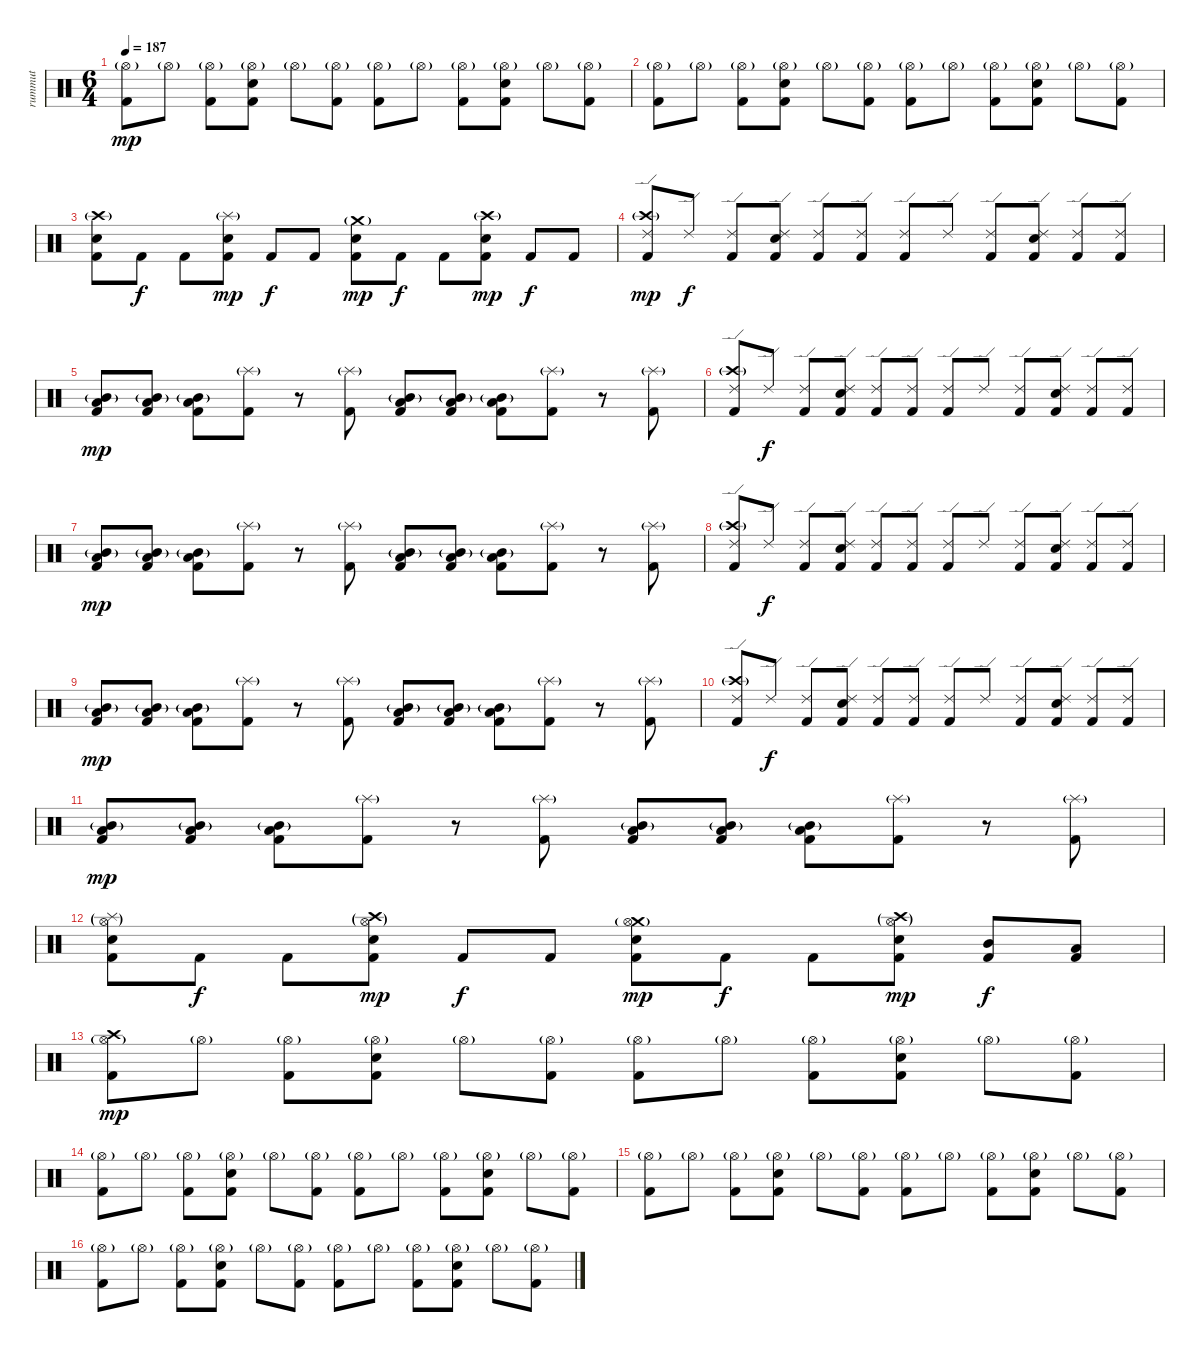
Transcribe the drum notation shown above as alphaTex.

\track ("rummut" "rummut") {instrument percussion}
\staff {score}
\articulation defaults
\ts (6 4)
\tempo 187
\clef neutral
\ks c
("Kick (hit) 2" "Hi-Hat (open)"{g}).8{dy mp} "Hi-Hat (open)"{g}.8 ("Kick (hit) 2" "Hi-Hat (open)"{g}).8 ("Kick (hit) 2" "Hi-Hat (open)"{g} "Snare (hit) 2").8 "Hi-Hat (open)"{g}.8 ("Kick (hit) 2" "Hi-Hat (open)"{g}).8 ("Kick (hit) 2" "Hi-Hat (open)"{g}).8 "Hi-Hat (open)"{g}.8 ("Kick (hit) 2" "Hi-Hat (open)"{g}).8 ("Kick (hit) 2" "Hi-Hat (open)"{g} "Snare (hit) 2").8 "Hi-Hat (open)"{g}.8 ("Kick (hit) 2" "Hi-Hat (open)"{g}).8 |
("Kick (hit) 2" "Hi-Hat (open)"{g}).8 "Hi-Hat (open)"{g}.8 ("Kick (hit) 2" "Hi-Hat (open)"{g}).8 ("Kick (hit) 2" "Hi-Hat (open)"{g} "Snare (hit) 2").8 "Hi-Hat (open)"{g}.8 ("Kick (hit) 2" "Hi-Hat (open)"{g}).8 ("Kick (hit) 2" "Hi-Hat (open)"{g}).8 "Hi-Hat (open)"{g}.8 ("Kick (hit) 2" "Hi-Hat (open)"{g}).8 ("Kick (hit) 2" "Hi-Hat (open)"{g} "Snare (hit) 2").8 "Hi-Hat (open)"{g}.8 ("Kick (hit) 2" "Hi-Hat (open)"{g}).8 |
("Kick (hit) 2" "Crash high (hit)"{g} "Snare (hit) 2").8 "Kick (hit) 2".8{dy f} "Kick (hit) 2".8 ("Kick (hit) 2" "Snare (hit) 2" "Splash (hit)"{g}).8{dy mp} "Kick (hit) 2".8{dy f} "Kick (hit) 2".8 ("Kick (hit) 2" "Snare (hit) 2" "Crash medium (hit)"{g}).8{dy mp} "Kick (hit) 2".8{dy f} "Kick (hit) 2".8 ("Kick (hit) 2" "Snare (hit) 2" "Crash high (hit)"{g}).8{dy mp} "Kick (hit) 2".8{dy f} "Kick (hit) 2".8 |
("Kick (hit) 2" "Ride (edge) 2" "Crash high (hit)"{g}).8{dy mp} "Ride (edge) 2".8{dy f} ("Kick (hit) 2" "Ride (edge) 2").8 ("Kick (hit) 2" "Ride (edge) 2" "Snare (hit) 2").8 ("Kick (hit) 2" "Ride (edge) 2").8 ("Kick (hit) 2" "Ride (edge) 2").8 ("Kick (hit) 2" "Ride (edge) 2").8 "Ride (edge) 2".8 ("Kick (hit) 2" "Ride (edge) 2").8 ("Kick (hit) 2" "Ride (edge) 2" "Snare (hit) 2").8 ("Kick (hit) 2" "Ride (edge) 2").8 ("Kick (hit) 2" "Ride (edge) 2").8 |
("Kick (hit) 2" "Low Tom (hit)" "Mid Tom (hit)"{g}).8{dy mp} ("Kick (hit) 2" "Low Tom (hit)" "Mid Tom (hit)"{g}).8 ("Kick (hit) 2" "Low Tom (hit)" "Mid Tom (hit)"{g}).8 ("Kick (hit) 2" "Splash (hit)"{g}).8 r.8 ("Kick (hit) 2" "Splash (hit)"{g}).8 ("Kick (hit) 2" "Low Tom (hit)" "Mid Tom (hit)"{g}).8 ("Kick (hit) 2" "Low Tom (hit)" "Mid Tom (hit)"{g}).8 ("Kick (hit) 2" "Low Tom (hit)" "Mid Tom (hit)"{g}).8 ("Kick (hit) 2" "Splash (hit)"{g}).8 r.8 ("Kick (hit) 2" "Splash (hit)"{g}).8 |
("Kick (hit) 2" "Ride (edge) 2" "Crash high (hit)"{g}).8 "Ride (edge) 2".8{dy f} ("Kick (hit) 2" "Ride (edge) 2").8 ("Kick (hit) 2" "Ride (edge) 2" "Snare (hit) 2").8 ("Kick (hit) 2" "Ride (edge) 2").8 ("Kick (hit) 2" "Ride (edge) 2").8 ("Kick (hit) 2" "Ride (edge) 2").8 "Ride (edge) 2".8 ("Kick (hit) 2" "Ride (edge) 2").8 ("Kick (hit) 2" "Ride (edge) 2" "Snare (hit) 2").8 ("Kick (hit) 2" "Ride (edge) 2").8 ("Kick (hit) 2" "Ride (edge) 2").8 |
("Kick (hit) 2" "Low Tom (hit)" "Mid Tom (hit)"{g}).8{dy mp} ("Kick (hit) 2" "Low Tom (hit)" "Mid Tom (hit)"{g}).8 ("Kick (hit) 2" "Low Tom (hit)" "Mid Tom (hit)"{g}).8 ("Kick (hit) 2" "Splash (hit)"{g}).8 r.8 ("Kick (hit) 2" "Splash (hit)"{g}).8 ("Kick (hit) 2" "Low Tom (hit)" "Mid Tom (hit)"{g}).8 ("Kick (hit) 2" "Low Tom (hit)" "Mid Tom (hit)"{g}).8 ("Kick (hit) 2" "Low Tom (hit)" "Mid Tom (hit)"{g}).8 ("Kick (hit) 2" "Splash (hit)"{g}).8 r.8 ("Kick (hit) 2" "Splash (hit)"{g}).8 |
("Kick (hit) 2" "Ride (edge) 2" "Crash high (hit)"{g}).8 "Ride (edge) 2".8{dy f} ("Kick (hit) 2" "Ride (edge) 2").8 ("Kick (hit) 2" "Ride (edge) 2" "Snare (hit) 2").8 ("Kick (hit) 2" "Ride (edge) 2").8 ("Kick (hit) 2" "Ride (edge) 2").8 ("Kick (hit) 2" "Ride (edge) 2").8 "Ride (edge) 2".8 ("Kick (hit) 2" "Ride (edge) 2").8 ("Kick (hit) 2" "Ride (edge) 2" "Snare (hit) 2").8 ("Kick (hit) 2" "Ride (edge) 2").8 ("Kick (hit) 2" "Ride (edge) 2").8 |
("Kick (hit) 2" "Low Tom (hit)" "Mid Tom (hit)"{g}).8{dy mp} ("Kick (hit) 2" "Low Tom (hit)" "Mid Tom (hit)"{g}).8 ("Kick (hit) 2" "Low Tom (hit)" "Mid Tom (hit)"{g}).8 ("Kick (hit) 2" "Splash (hit)"{g}).8 r.8 ("Kick (hit) 2" "Splash (hit)"{g}).8 ("Kick (hit) 2" "Low Tom (hit)" "Mid Tom (hit)"{g}).8 ("Kick (hit) 2" "Low Tom (hit)" "Mid Tom (hit)"{g}).8 ("Kick (hit) 2" "Low Tom (hit)" "Mid Tom (hit)"{g}).8 ("Kick (hit) 2" "Splash (hit)"{g}).8 r.8 ("Kick (hit) 2" "Splash (hit)"{g}).8 |
("Kick (hit) 2" "Ride (edge) 2" "Crash high (hit)"{g}).8 "Ride (edge) 2".8{dy f} ("Kick (hit) 2" "Ride (edge) 2").8 ("Kick (hit) 2" "Ride (edge) 2" "Snare (hit) 2").8 ("Kick (hit) 2" "Ride (edge) 2").8 ("Kick (hit) 2" "Ride (edge) 2").8 ("Kick (hit) 2" "Ride (edge) 2").8 "Ride (edge) 2".8 ("Kick (hit) 2" "Ride (edge) 2").8 ("Kick (hit) 2" "Ride (edge) 2" "Snare (hit) 2").8 ("Kick (hit) 2" "Ride (edge) 2").8 ("Kick (hit) 2" "Ride (edge) 2").8 |
("Kick (hit) 2" "Low Tom (hit)" "Mid Tom (hit)"{g}).8{dy mp} ("Kick (hit) 2" "Low Tom (hit)" "Mid Tom (hit)"{g}).8 ("Kick (hit) 2" "Low Tom (hit)" "Mid Tom (hit)"{g}).8 ("Kick (hit) 2" "Splash (hit)"{g}).8 r.8 ("Kick (hit) 2" "Splash (hit)"{g}).8 ("Kick (hit) 2" "Low Tom (hit)" "Mid Tom (hit)"{g}).8 ("Kick (hit) 2" "Low Tom (hit)" "Mid Tom (hit)"{g}).8 ("Kick (hit) 2" "Low Tom (hit)" "Mid Tom (hit)"{g}).8 ("Kick (hit) 2" "Splash (hit)"{g}).8 r.8 ("Kick (hit) 2" "Splash (hit)"{g}).8 |
("Kick (hit) 2" "Snare (hit) 2" "Splash (hit)"{g} "Hi-Hat (open)"{g}).8 "Kick (hit) 2".8{dy f} "Kick (hit) 2".8 ("Kick (hit) 2" "Snare (hit) 2" "Crash high (hit)"{g} "Hi-Hat (open)"{g}).8{dy mp} "Kick (hit) 2".8{dy f} "Kick (hit) 2".8 ("Kick (hit) 2" "Snare (hit) 2" "Crash medium (hit)"{g} "Hi-Hat (open)"{g}).8{dy mp} "Kick (hit) 2".8{dy f} "Kick (hit) 2".8 ("Kick (hit) 2" "Snare (hit) 2" "Crash high (hit)"{g} "Hi-Hat (open)"{g}).8{dy mp} ("Kick (hit) 2" "Mid Tom (hit)").8{dy f} ("Kick (hit) 2" "Low Tom (hit)").8 |
("Kick (hit) 2" "Hi-Hat (open)"{g} "Crash high (hit)").8{dy mp} "Hi-Hat (open)"{g}.8 ("Kick (hit) 2" "Hi-Hat (open)"{g}).8 ("Kick (hit) 2" "Hi-Hat (open)"{g} "Snare (hit) 2").8 "Hi-Hat (open)"{g}.8 ("Kick (hit) 2" "Hi-Hat (open)"{g}).8 ("Kick (hit) 2" "Hi-Hat (open)"{g}).8 "Hi-Hat (open)"{g}.8 ("Kick (hit) 2" "Hi-Hat (open)"{g}).8 ("Kick (hit) 2" "Hi-Hat (open)"{g} "Snare (hit) 2").8 "Hi-Hat (open)"{g}.8 ("Kick (hit) 2" "Hi-Hat (open)"{g}).8 |
("Kick (hit) 2" "Hi-Hat (open)"{g}).8 "Hi-Hat (open)"{g}.8 ("Kick (hit) 2" "Hi-Hat (open)"{g}).8 ("Kick (hit) 2" "Hi-Hat (open)"{g} "Snare (hit) 2").8 "Hi-Hat (open)"{g}.8 ("Kick (hit) 2" "Hi-Hat (open)"{g}).8 ("Kick (hit) 2" "Hi-Hat (open)"{g}).8 "Hi-Hat (open)"{g}.8 ("Kick (hit) 2" "Hi-Hat (open)"{g}).8 ("Kick (hit) 2" "Hi-Hat (open)"{g} "Snare (hit) 2").8 "Hi-Hat (open)"{g}.8 ("Kick (hit) 2" "Hi-Hat (open)"{g}).8 |
("Kick (hit) 2" "Hi-Hat (open)"{g}).8 "Hi-Hat (open)"{g}.8 ("Kick (hit) 2" "Hi-Hat (open)"{g}).8 ("Kick (hit) 2" "Hi-Hat (open)"{g} "Snare (hit) 2").8 "Hi-Hat (open)"{g}.8 ("Kick (hit) 2" "Hi-Hat (open)"{g}).8 ("Kick (hit) 2" "Hi-Hat (open)"{g}).8 "Hi-Hat (open)"{g}.8 ("Kick (hit) 2" "Hi-Hat (open)"{g}).8 ("Kick (hit) 2" "Hi-Hat (open)"{g} "Snare (hit) 2").8 "Hi-Hat (open)"{g}.8 ("Kick (hit) 2" "Hi-Hat (open)"{g}).8 |
("Kick (hit) 2" "Hi-Hat (open)"{g}).8 "Hi-Hat (open)"{g}.8 ("Kick (hit) 2" "Hi-Hat (open)"{g}).8 ("Kick (hit) 2" "Hi-Hat (open)"{g} "Snare (hit) 2").8 "Hi-Hat (open)"{g}.8 ("Kick (hit) 2" "Hi-Hat (open)"{g}).8 ("Kick (hit) 2" "Hi-Hat (open)"{g}).8 "Hi-Hat (open)"{g}.8 ("Kick (hit) 2" "Hi-Hat (open)"{g}).8 ("Kick (hit) 2" "Hi-Hat (open)"{g} "Snare (hit) 2").8 "Hi-Hat (open)"{g}.8 ("Kick (hit) 2" "Hi-Hat (open)"{g}).8
